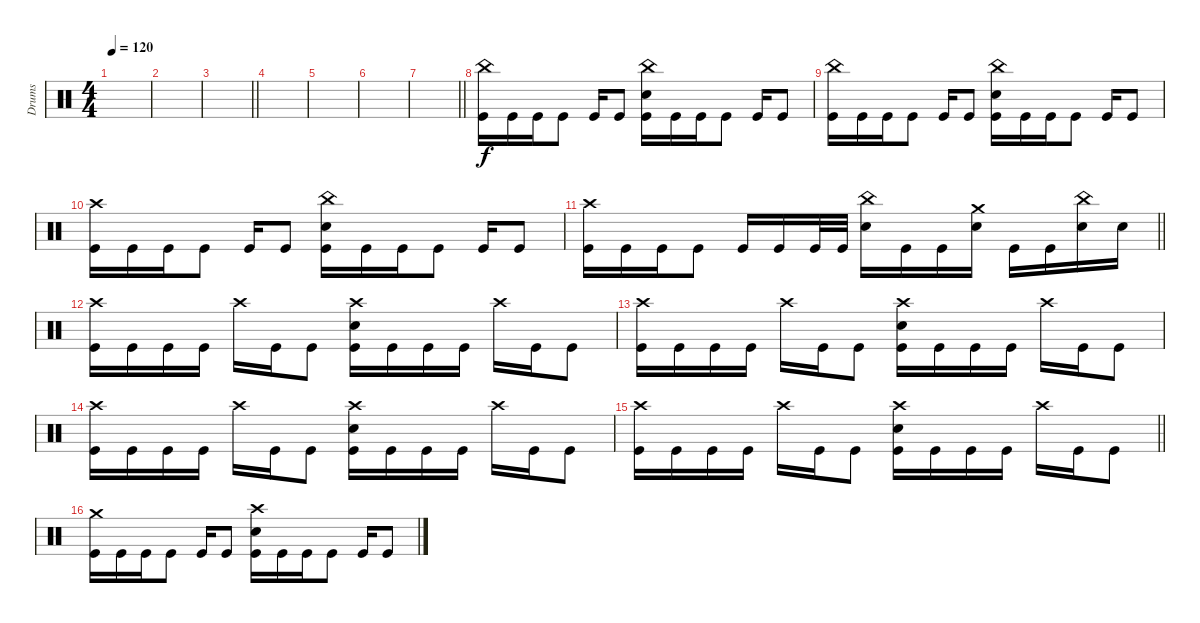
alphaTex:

\track ("Drums" "Drums") {instrument percussion}
\staff
\articulation defaults
\ts (4 4)
\tempo 120
\clef neutral
\ks c
|
|
\barLineRight lightlight
|
|
|
|
\barLineRight lightlight
|
("China (hit)" "Kick (hit)").16{dy f} "Kick (hit)".16 "Kick (hit)".16 "Kick (hit)".8 "Kick (hit)".16 "Kick (hit)".8 ("China (hit)" "Electric Snare (hit)" "Kick (hit)").16 "Kick (hit)".16 "Kick (hit)".16 "Kick (hit)".8 "Kick (hit)".16 "Kick (hit)".8 |
("China (hit)" "Kick (hit)").16 "Kick (hit)".16 "Kick (hit)".16 "Kick (hit)".8 "Kick (hit)".16 "Kick (hit)".8 ("China (hit)" "Electric Snare (hit)" "Kick (hit)").16 "Kick (hit)".16 "Kick (hit)".16 "Kick (hit)".8 "Kick (hit)".16 "Kick (hit)".8 |
("Crash high (hit)" "Kick (hit)").16 "Kick (hit)".16 "Kick (hit)".16 "Kick (hit)".8 "Kick (hit)".16 "Kick (hit)".8 ("China (hit)" "Electric Snare (hit)" "Kick (hit)").16 "Kick (hit)".16 "Kick (hit)".16 "Kick (hit)".8 "Kick (hit)".16 "Kick (hit)".8 |
\barLineRight lightlight
("Crash high (hit)" "Kick (hit)").16 "Kick (hit)".16 "Kick (hit)".16 "Kick (hit)".8 "Kick (hit)".16 "Kick (hit)".16 "Kick (hit)".32 "Kick (hit)".32 ("China (hit)" "Electric Snare (hit)").16 "Kick (hit)".16 "Kick (hit)".16 ("Crash medium (hit)" "Electric Snare (hit)").16 "Kick (hit)".16 "Kick (hit)".16 ("China (hit)" "Electric Snare (hit)").16 "Electric Snare (hit)".16 |
("Crash high (hit)" "Kick (hit)").16 "Kick (hit)".16 "Kick (hit)".16 "Kick (hit)".16 "Crash high (hit)".16 "Kick (hit)".16 "Kick (hit)".8 ("Crash high (hit)" "Electric Snare (hit)" "Kick (hit)").16 "Kick (hit)".16 "Kick (hit)".16 "Kick (hit)".16 "Crash high (hit)".16 "Kick (hit)".16 "Kick (hit)".8 |
("Crash high (hit)" "Kick (hit)").16 "Kick (hit)".16 "Kick (hit)".16 "Kick (hit)".16 "Crash high (hit)".16 "Kick (hit)".16 "Kick (hit)".8 ("Crash high (hit)" "Electric Snare (hit)" "Kick (hit)").16 "Kick (hit)".16 "Kick (hit)".16 "Kick (hit)".16 "Crash high (hit)".16 "Kick (hit)".16 "Kick (hit)".8 |
("Crash high (hit)" "Kick (hit)").16 "Kick (hit)".16 "Kick (hit)".16 "Kick (hit)".16 "Crash high (hit)".16 "Kick (hit)".16 "Kick (hit)".8 ("Crash high (hit)" "Electric Snare (hit)" "Kick (hit)").16 "Kick (hit)".16 "Kick (hit)".16 "Kick (hit)".16 "Crash high (hit)".16 "Kick (hit)".16 "Kick (hit)".8 |
\barLineRight lightlight
("Crash high (hit)" "Kick (hit)").16 "Kick (hit)".16 "Kick (hit)".16 "Kick (hit)".16 "Crash high (hit)".16 "Kick (hit)".16 "Kick (hit)".8 ("Crash high (hit)" "Electric Snare (hit)" "Kick (hit)").16 "Kick (hit)".16 "Kick (hit)".16 "Kick (hit)".16 "Crash high (hit)".16 "Kick (hit)".16 "Kick (hit)".8 |
("Crash medium (hit)" "Kick (hit)").16 "Kick (hit)".16 "Kick (hit)".16 "Kick (hit)".8 "Kick (hit)".16 "Kick (hit)".8 ("Crash high (hit)" "Electric Snare (hit)" "Kick (hit)").16 "Kick (hit)".16 "Kick (hit)".16 "Kick (hit)".8 "Kick (hit)".16 "Kick (hit)".8
